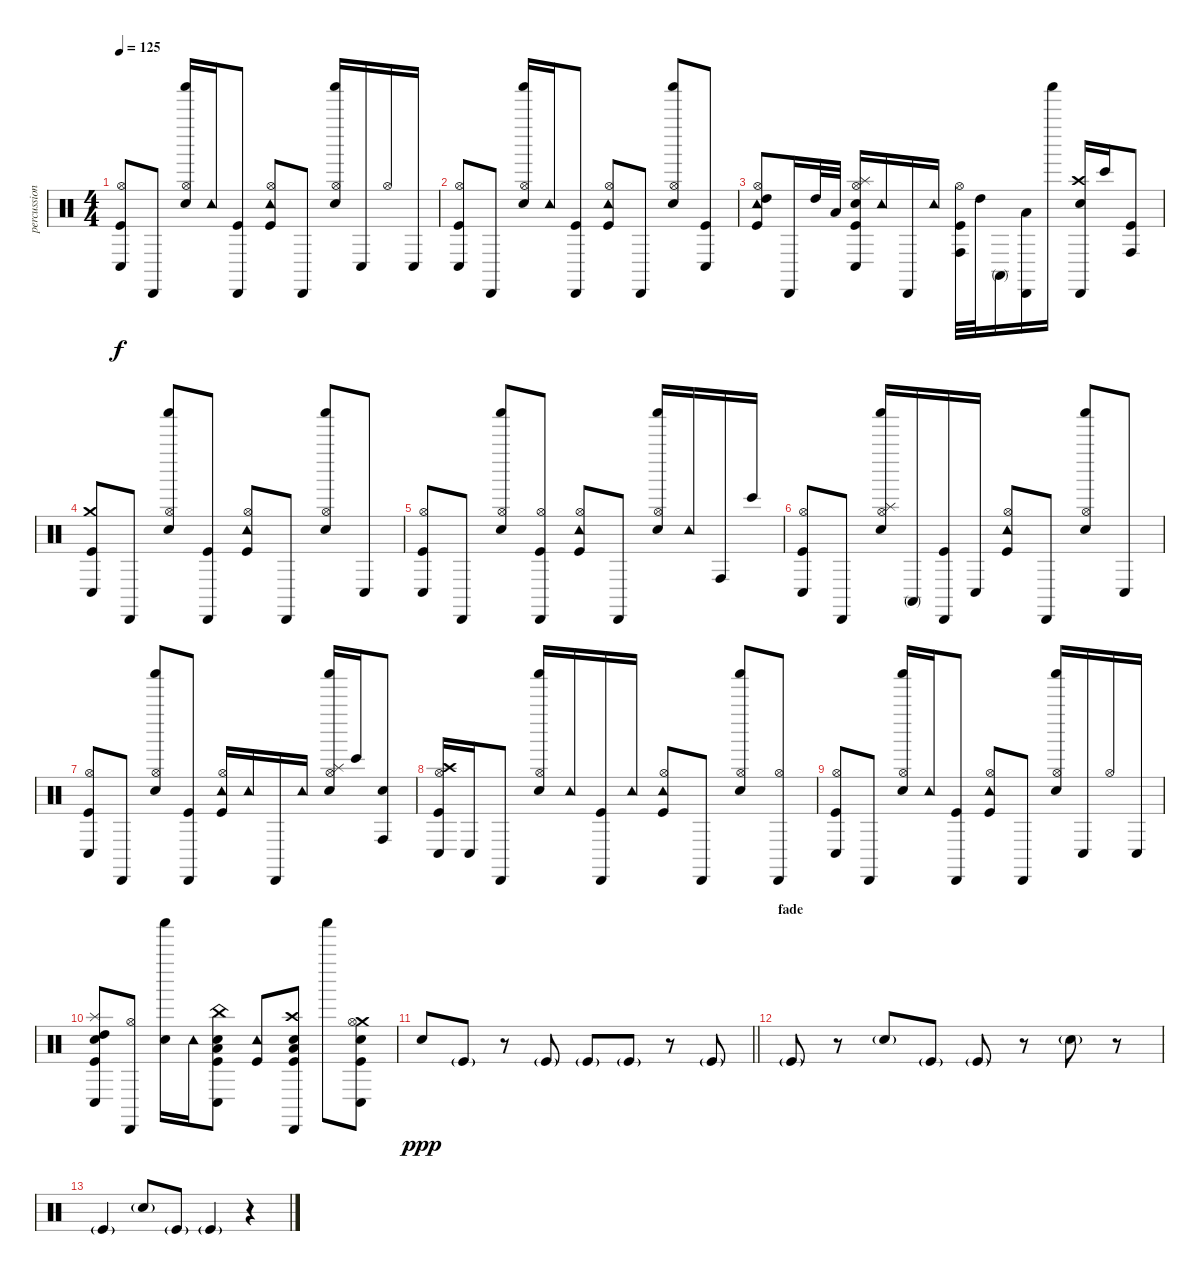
\track ("percussion" "percussion") {instrument percussion}
\staff {score}
\articulation defaults
\ts (4 4)
\tempo 125
\clef neutral
\ks c
("Conga low (hit)" "Hi-Hat (open)" "Kick (hit)").8{dy f} "Cabasa (hit)".8 ("Shaker (hit)" "Electric Snare (hit)" "Hi-Hat (open)").16 "Tambourine (hit)".16 ("Cabasa (hit)" "Kick (hit)").8 ("Tambourine (hit)" "Hi-Hat (open)" "Kick (hit)").8 "Cabasa (hit)".8 ("Shaker (hit)" "Electric Snare (hit)" "Hi-Hat (open)").16 "Conga low (hit)".16 "Hi-Hat (open)".16 "Conga low (hit)".16 |
("Conga low (hit)" "Hi-Hat (open)" "Kick (hit)").8 "Cabasa (hit)".8 ("Shaker (hit)" "Electric Snare (hit)" "Hi-Hat (open)").16 "Tambourine (hit)".16 ("Cabasa (hit)" "Kick (hit)").8 ("Tambourine (hit)" "Hi-Hat (open)" "Kick (hit)").8 "Cabasa (hit)".8 ("Shaker (hit)" "Electric Snare (hit)" "Hi-Hat (open)").8 ("Conga low (hit)" "Kick (hit)").8 |
("Tambourine (hit)" "High Tom (hit)" "Hi-Hat (open)" "Kick (hit)").8 "Cabasa (hit)".16 "High Tom (hit)".32 "Low Tom (hit)".32 ("Splash (hit)" "Conga low (hit)" "Electric Snare (hit)" "Hi-Hat (open)" "Kick (hit)").16 "Tambourine (hit)".16 "Cabasa (hit)".16 "Tambourine (hit)".16 ("Conga high (hit)" "Hi-Hat (open)" "Kick (hit)").32 "High Tom (hit)".32 "Conga high (mute)".16 ("Cabasa (hit)" "Low Tom (hit)").16 "Shaker (hit)".16 ("Crash high (hit)" "Cabasa (hit)" "Electric Snare (hit)").16 "Bongo High (hit)".16 ("Conga high (hit)" "Kick (hit)").8 |
("Crash medium (hit)" "Conga low (hit)" "Kick (hit)").8 "Cabasa (hit)".8 ("Shaker (hit)" "Electric Snare (hit)" "Hi-Hat (open)").8 ("Cabasa (hit)" "Kick (hit)").8 ("Tambourine (hit)" "Hi-Hat (open)" "Kick (hit)").8 "Cabasa (hit)".8 ("Shaker (hit)" "Electric Snare (hit)" "Hi-Hat (open)").8 "Conga low (hit)".8 |
("Conga low (hit)" "Hi-Hat (open)" "Kick (hit)").8 "Cabasa (hit)".8 ("Shaker (hit)" "Electric Snare (hit)" "Hi-Hat (open)").8 ("Cabasa (hit)" "Hi-Hat (open)" "Kick (hit)").8 ("Tambourine (hit)" "Hi-Hat (open)" "Kick (hit)").8 "Cabasa (hit)".8 ("Shaker (hit)" "Electric Snare (hit)" "Hi-Hat (open)").16 "Tambourine (hit)".16 "Conga high (hit)".16 "Bongo High (hit)".16 |
("Conga low (hit)" "Hi-Hat (open)" "Kick (hit)").8 "Cabasa (hit)".8 ("Splash (hit)" "Shaker (hit)" "Electric Snare (hit)" "Hi-Hat (open)").16 "Conga high (mute)".16 ("Cabasa (hit)" "Kick (hit)").16 "Conga low (hit)".16 ("Tambourine (hit)" "Hi-Hat (open)" "Kick (hit)").8 "Cabasa (hit)".8 ("Shaker (hit)" "Electric Snare (hit)" "Hi-Hat (open)").8 "Conga low (hit)".8 |
("Conga low (hit)" "Hi-Hat (open)" "Kick (hit)").8 "Cabasa (hit)".8 ("Shaker (hit)" "Electric Snare (hit)" "Hi-Hat (open)").8 ("Cabasa (hit)" "Kick (hit)").8 ("Tambourine (hit)" "Hi-Hat (open)" "Kick (hit)").16 "Tambourine (hit)".16 "Cabasa (hit)".16 "Tambourine (hit)".16 ("Splash (hit)" "Shaker (hit)" "Electric Snare (hit)" "Hi-Hat (open)").16 "Bongo High (hit)".16 ("Conga high (hit)" "Electric Snare (hit)").8 |
("Crash high (hit)" "Conga low (hit)" "Hi-Hat (open)" "Kick (hit)").16 "Conga low (hit)".16 "Cabasa (hit)".8 ("Shaker (hit)" "Electric Snare (hit)" "Hi-Hat (open)").16 "Tambourine (hit)".16 ("Cabasa (hit)" "Kick (hit)").16 "Tambourine (hit)".16 ("Tambourine (hit)" "Hi-Hat (open)" "Kick (hit)").8 "Cabasa (hit)".8 ("Shaker (hit)" "Electric Snare (hit)" "Hi-Hat (open)").8 ("Cabasa (hit)" "Hi-Hat (open)").8 |
("Conga low (hit)" "Hi-Hat (open)" "Kick (hit)").8 "Cabasa (hit)".8 ("Shaker (hit)" "Electric Snare (hit)" "Hi-Hat (open)").16 "Tambourine (hit)".16 ("Cabasa (hit)" "Kick (hit)").8 ("Tambourine (hit)" "Hi-Hat (open)" "Kick (hit)").8 "Cabasa (hit)".8 ("Shaker (hit)" "Electric Snare (hit)" "Hi-Hat (open)").16 "Conga low (hit)".16 "Hi-Hat (open)".16 "Conga low (hit)".16 |
("Splash (hit)" "Conga low (hit)" "High Tom (hit)" "Electric Snare (hit)" "Kick (hit)").8 ("Cabasa (hit)" "Hi-Hat (open)").8 ("Shaker (hit)" "Electric Snare (hit)").16 "Tambourine (hit)".16 ("China (hit)" "Conga low (hit)" "Low Tom (hit)" "Electric Snare (hit)" "Kick (hit)").8 ("Tambourine (hit)" "Kick (hit)").8 ("Crash high (hit)" "Cabasa (hit)" "Low Floor Tom (hit)" "Electric Snare (hit)" "Kick (hit)").8 "Shaker (hit)".8 ("Crash medium (hit)" "Conga low (hit)" "Electric Snare (hit)" "Hi-Hat (open)" "Kick (hit)").8 |
\barLineRight lightlight "Electric Snare (hit)".8{dy ppp} "Kick (hit)"{g}.8
r.8{volume 0} "Kick (hit)"{g}.8 "Kick (hit)"{g}.8 "Kick (hit)"{g}.8 r.8 "Kick (hit)"{g}.8 |
\section ("" "fade")
"Kick (hit)"{g}.8 r.8 "Electric Snare (hit)"{g}.8 "Kick (hit)"{g}.8 "Kick (hit)"{g}.8 r.8 "Electric Snare (hit)"{g}.8 r.8 |
"Kick (hit)"{g}.4 "Electric Snare (hit)"{g}.8 "Kick (hit)"{g}.8 "Kick (hit)"{g}.4 r.4
